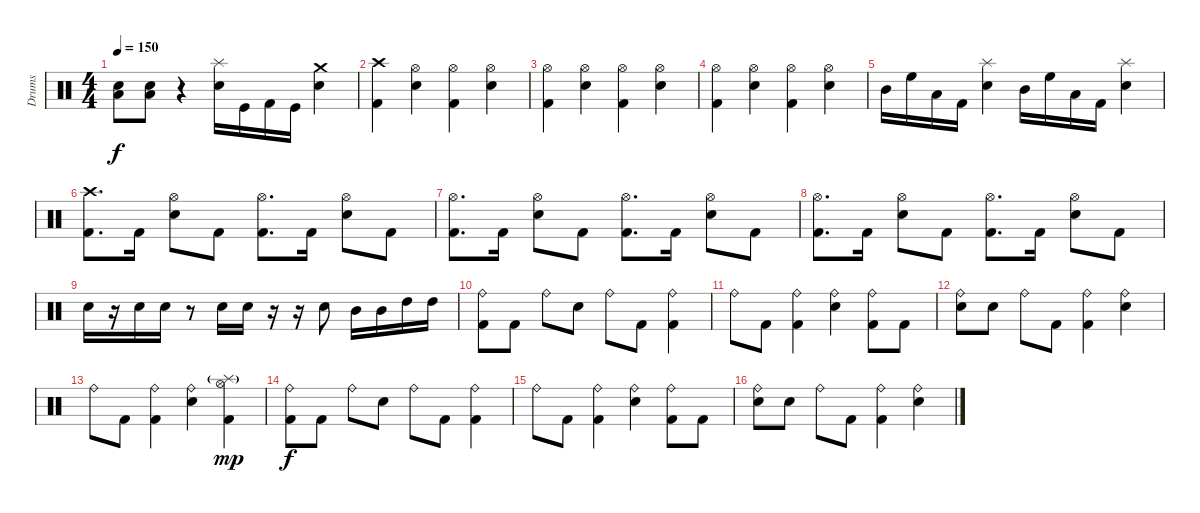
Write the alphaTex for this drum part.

\track ("Drums" "Drums") {instrument percussion}
\staff {score}
\articulation defaults
\ts (4 4)
\tempo 150
\clef neutral
\ks c
("Electric Snare (hit)" "Low Floor Tom (hit)").8{dy f} ("Electric Snare (hit)" "Low Floor Tom (hit)").8 r.4 ("Splash (hit)" "Electric Snare (hit)").16 "Kick (hit)".16 "Kick (hit) 2".16 "Kick (hit)".16 ("Crash medium (hit)" "Electric Snare (hit)").4 |
("Crash high (hit)" "Kick (hit) 2").4 ("Hi-Hat (open)" "Electric Snare (hit)").4 ("Hi-Hat (open)" "Kick (hit) 2").4 ("Hi-Hat (open)" "Electric Snare (hit)").4 |
("Hi-Hat (open)" "Kick (hit) 2").4 ("Hi-Hat (open)" "Electric Snare (hit)").4 ("Hi-Hat (open)" "Kick (hit) 2").4 ("Hi-Hat (open)" "Electric Snare (hit)").4 |
("Hi-Hat (open)" "Kick (hit) 2").4 ("Hi-Hat (open)" "Electric Snare (hit)").4 ("Hi-Hat (open)" "Kick (hit) 2").4 ("Hi-Hat (open)" "Electric Snare (hit)").4 |
"Mid Tom (hit)".16 "High Floor Tom (hit)".16 "Low Floor Tom (hit)".16 "Kick (hit) 2".16 ("Splash (hit)" "Electric Snare (hit)").4 "Mid Tom (hit)".16 "High Floor Tom (hit)".16 "Low Floor Tom (hit)".16 "Kick (hit) 2".16 ("Splash (hit)" "Electric Snare (hit)").4 |
("Crash high (hit)" "Kick (hit) 2").8{d} "Kick (hit) 2".16 ("Hi-Hat (open)" "Electric Snare (hit)").8 "Kick (hit) 2".8 ("Hi-Hat (open)" "Kick (hit) 2").8{d} "Kick (hit) 2".16 ("Hi-Hat (open)" "Electric Snare (hit)").8 "Kick (hit) 2".8 |
("Hi-Hat (open)" "Kick (hit) 2").8{d} "Kick (hit) 2".16 ("Hi-Hat (open)" "Electric Snare (hit)").8 "Kick (hit) 2".8 ("Hi-Hat (open)" "Kick (hit) 2").8{d} "Kick (hit) 2".16 ("Hi-Hat (open)" "Electric Snare (hit)").8 "Kick (hit) 2".8 |
("Hi-Hat (open)" "Kick (hit) 2").8{d} "Kick (hit) 2".16 ("Hi-Hat (open)" "Electric Snare (hit)").8 "Kick (hit) 2".8 ("Hi-Hat (open)" "Kick (hit) 2").8{d} "Kick (hit) 2".16 ("Hi-Hat (open)" "Electric Snare (hit)").8 "Kick (hit) 2".8 |
"Electric Snare (hit)".16 r.16 "Electric Snare (hit)".16 "Electric Snare (hit)".16 r.8 "Electric Snare (hit)".16 "Electric Snare (hit)".16 r.16 r.16 "Electric Snare (hit)".8 "Mid Tom (hit)".16 "Mid Tom (hit)".16 "High Tom (hit)".16 "High Tom (hit)".16 |
("Ride (bell)" "Kick (hit) 2").8 "Kick (hit) 2".8 "Ride (bell)".8 "Electric Snare (hit)".8 "Ride (bell)".8 "Kick (hit) 2".8 ("Ride (bell)" "Kick (hit) 2").4 |
"Ride (bell)".8 "Kick (hit) 2".8 ("Ride (bell)" "Kick (hit) 2").4 ("Ride (bell)" "Electric Snare (hit)").4 ("Ride (bell)" "Kick (hit) 2").8 "Kick (hit) 2".8 |
("Ride (bell)" "Electric Snare (hit)").8 "Electric Snare (hit)".8 "Ride (bell)".8 "Kick (hit) 2".8 ("Ride (bell)" "Kick (hit) 2").4 ("Ride (bell)" "Electric Snare (hit)").4 |
"Ride (bell)".8 "Kick (hit) 2".8 ("Ride (bell)" "Kick (hit) 2").4 ("Ride (bell)" "Electric Snare (hit)").4 ("Hi-Hat (open)" "Splash (hit)"{g} "Kick (hit) 2").4{dy mp} |
("Ride (bell)" "Kick (hit) 2").8{dy f} "Kick (hit) 2".8 "Ride (bell)".8 "Electric Snare (hit)".8 "Ride (bell)".8 "Kick (hit) 2".8 ("Ride (bell)" "Kick (hit) 2").4 |
"Ride (bell)".8 "Kick (hit) 2".8 ("Ride (bell)" "Kick (hit) 2").4 ("Ride (bell)" "Electric Snare (hit)").4 ("Ride (bell)" "Kick (hit) 2").8 "Kick (hit) 2".8 |
("Ride (bell)" "Electric Snare (hit)").8 "Electric Snare (hit)".8 "Ride (bell)".8 "Kick (hit) 2".8 ("Ride (bell)" "Kick (hit) 2").4 ("Ride (bell)" "Electric Snare (hit)").4
